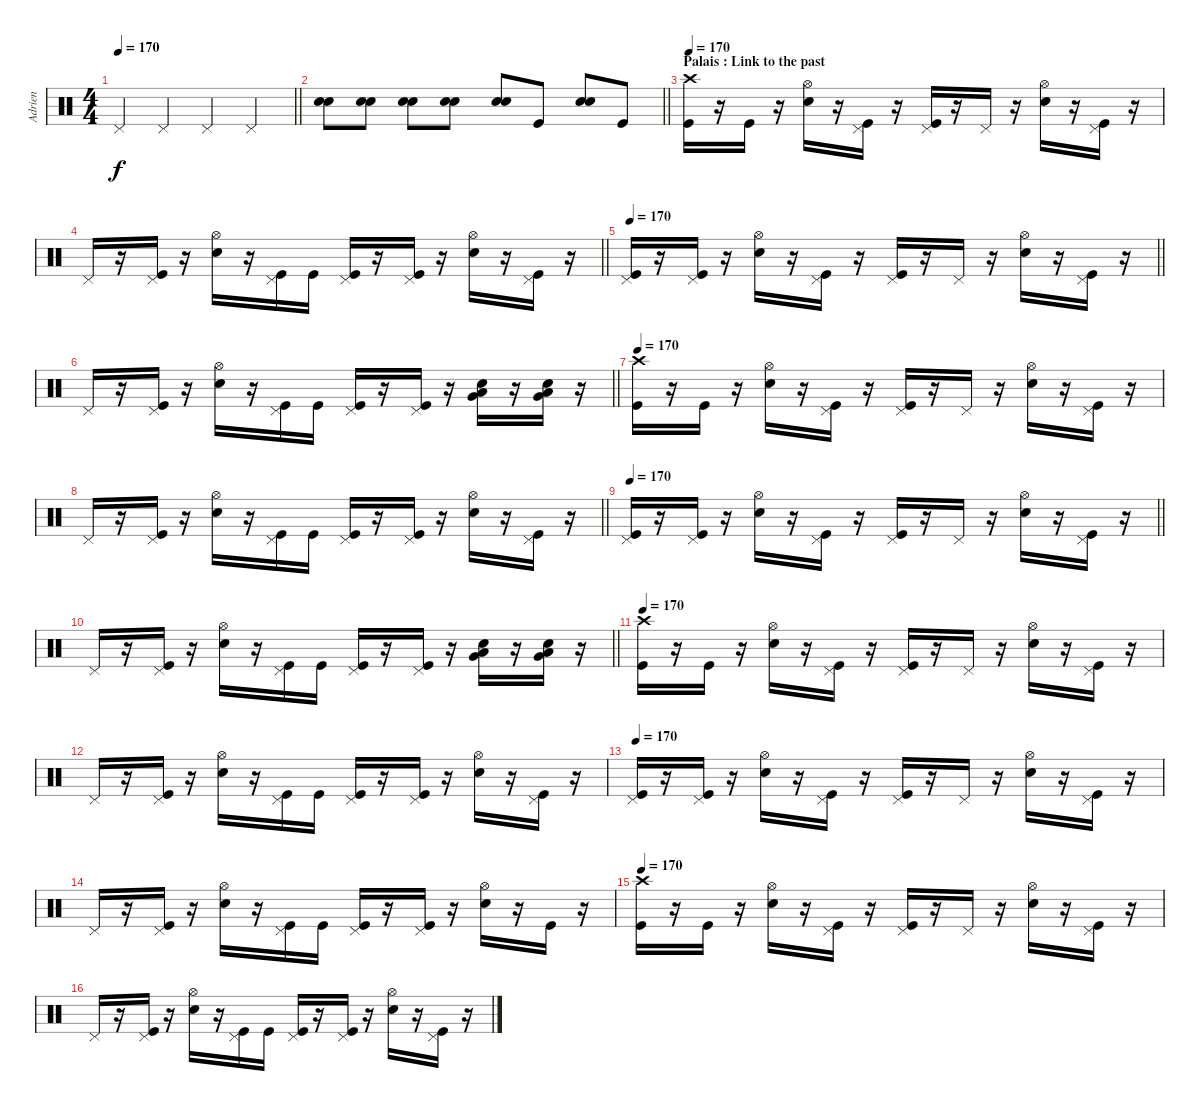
\track ("Adrien" "Adrien") {instrument percussion}
\staff {score}
\articulation defaults
\ts (4 4)
\tempo 170
\clef neutral
\barLineRight lightlight
\ks c "Pedal Hi-Hat (hit)".4{dy f} "Pedal Hi-Hat (hit)".4 "Pedal Hi-Hat (hit)".4 "Pedal Hi-Hat (hit)".4
|
\barLineRight lightlight
("Snare (hit) 2" "Snare (hit) 2").8 ("Snare (hit) 2" "Snare (hit) 2").8 ("Snare (hit) 2" "Snare (hit) 2").8 ("Snare (hit) 2" "Snare (hit) 2").8 ("Snare (hit) 2" "Snare (hit) 2").8 "Kick (hit)".8 ("Snare (hit) 2" "Snare (hit) 2").8 "Kick (hit)".8 |
\section ("" "Palais : Link to the past")
\tempo 170
("Crash high (hit)" "Kick (hit)").16 r.16 "Kick (hit)".16 r.16 ("Hi-Hat (open)" "Electric Snare (hit)").16 r.16 ("Pedal Hi-Hat (hit)" "Kick (hit)").16 r.16 ("Pedal Hi-Hat (hit)" "Kick (hit)").16 r.16 "Pedal Hi-Hat (hit)".16 r.16 ("Hi-Hat (open)" "Electric Snare (hit)").16 r.16 ("Pedal Hi-Hat (hit)" "Kick (hit)").16 r.16 |
\barLineRight lightlight "Pedal Hi-Hat (hit)".16
r.16 ("Pedal Hi-Hat (hit)" "Kick (hit)").16 r.16 ("Hi-Hat (open)" "Electric Snare (hit)").16 r.16 ("Pedal Hi-Hat (hit)" "Kick (hit)").16 "Kick (hit)".16 ("Pedal Hi-Hat (hit)" "Kick (hit)").16 r.16 ("Pedal Hi-Hat (hit)" "Kick (hit)").16 r.16 ("Hi-Hat (open)" "Electric Snare (hit)").16 r.16 ("Pedal Hi-Hat (hit)" "Kick (hit)").16 r.16 |
\tempo 170
\barLineRight lightlight
("Pedal Hi-Hat (hit)" "Kick (hit)").16 r.16 ("Pedal Hi-Hat (hit)" "Kick (hit)").16 r.16 ("Hi-Hat (open)" "Electric Snare (hit)").16 r.16 ("Pedal Hi-Hat (hit)" "Kick (hit)").16 r.16 ("Pedal Hi-Hat (hit)" "Kick (hit)").16 r.16 "Pedal Hi-Hat (hit)".16 r.16 ("Hi-Hat (open)" "Electric Snare (hit)").16 r.16 ("Pedal Hi-Hat (hit)" "Kick (hit)").16 r.16 |
\barLineRight lightlight "Pedal Hi-Hat (hit)".16
r.16 ("Pedal Hi-Hat (hit)" "Kick (hit)").16 r.16 ("Hi-Hat (open)" "Electric Snare (hit)").16 r.16 ("Pedal Hi-Hat (hit)" "Kick (hit)").16 "Kick (hit)".16 ("Pedal Hi-Hat (hit)" "Kick (hit)").16 r.16 ("Pedal Hi-Hat (hit)" "Kick (hit)").16 r.16 ("Very Low Tom (hit)" "Low Floor Tom (hit)" "Electric Snare (hit)").16 r.16 ("Very Low Tom (hit)" "Low Floor Tom (hit)" "Electric Snare (hit)").16 r.16 |
\tempo 170
("Crash high (hit)" "Kick (hit)").16 r.16 "Kick (hit)".16 r.16 ("Hi-Hat (open)" "Electric Snare (hit)").16 r.16 ("Pedal Hi-Hat (hit)" "Kick (hit)").16 r.16 ("Pedal Hi-Hat (hit)" "Kick (hit)").16 r.16 "Pedal Hi-Hat (hit)".16 r.16 ("Hi-Hat (open)" "Electric Snare (hit)").16 r.16 ("Pedal Hi-Hat (hit)" "Kick (hit)").16 r.16 |
\barLineRight lightlight "Pedal Hi-Hat (hit)".16
r.16 ("Pedal Hi-Hat (hit)" "Kick (hit)").16 r.16 ("Hi-Hat (open)" "Electric Snare (hit)").16 r.16 ("Pedal Hi-Hat (hit)" "Kick (hit)").16 "Kick (hit)".16 ("Pedal Hi-Hat (hit)" "Kick (hit)").16 r.16 ("Pedal Hi-Hat (hit)" "Kick (hit)").16 r.16 ("Hi-Hat (open)" "Electric Snare (hit)").16 r.16 ("Pedal Hi-Hat (hit)" "Kick (hit)").16 r.16 |
\tempo 170
\barLineRight lightlight
("Pedal Hi-Hat (hit)" "Kick (hit)").16 r.16 ("Pedal Hi-Hat (hit)" "Kick (hit)").16 r.16 ("Hi-Hat (open)" "Electric Snare (hit)").16 r.16 ("Pedal Hi-Hat (hit)" "Kick (hit)").16 r.16 ("Pedal Hi-Hat (hit)" "Kick (hit)").16 r.16 "Pedal Hi-Hat (hit)".16 r.16 ("Hi-Hat (open)" "Electric Snare (hit)").16 r.16 ("Pedal Hi-Hat (hit)" "Kick (hit)").16 r.16 |
\barLineRight lightlight "Pedal Hi-Hat (hit)".16
r.16 ("Pedal Hi-Hat (hit)" "Kick (hit)").16 r.16 ("Hi-Hat (open)" "Electric Snare (hit)").16 r.16 ("Pedal Hi-Hat (hit)" "Kick (hit)").16 "Kick (hit)".16 ("Pedal Hi-Hat (hit)" "Kick (hit)").16 r.16 ("Pedal Hi-Hat (hit)" "Kick (hit)").16 r.16 ("Very Low Tom (hit)" "Low Floor Tom (hit)" "Electric Snare (hit)").16 r.16 ("Very Low Tom (hit)" "Low Floor Tom (hit)" "Electric Snare (hit)").16 r.16 |
\tempo 170
("Crash high (hit)" "Kick (hit)").16 r.16 "Kick (hit)".16 r.16 ("Hi-Hat (open)" "Electric Snare (hit)").16 r.16 ("Pedal Hi-Hat (hit)" "Kick (hit)").16 r.16 ("Pedal Hi-Hat (hit)" "Kick (hit)").16 r.16 "Pedal Hi-Hat (hit)".16 r.16 ("Hi-Hat (open)" "Electric Snare (hit)").16 r.16 ("Pedal Hi-Hat (hit)" "Kick (hit)").16 r.16 |
"Pedal Hi-Hat (hit)".16 r.16 ("Pedal Hi-Hat (hit)" "Kick (hit)").16 r.16 ("Hi-Hat (open)" "Electric Snare (hit)").16 r.16 ("Pedal Hi-Hat (hit)" "Kick (hit)").16 "Kick (hit)".16 ("Pedal Hi-Hat (hit)" "Kick (hit)").16 r.16 ("Pedal Hi-Hat (hit)" "Kick (hit)").16 r.16 ("Hi-Hat (open)" "Electric Snare (hit)").16 r.16 ("Pedal Hi-Hat (hit)" "Kick (hit)").16 r.16 |
\tempo 170
("Pedal Hi-Hat (hit)" "Kick (hit)").16 r.16 ("Pedal Hi-Hat (hit)" "Kick (hit)").16 r.16 ("Hi-Hat (open)" "Electric Snare (hit)").16 r.16 ("Pedal Hi-Hat (hit)" "Kick (hit)").16 r.16 ("Pedal Hi-Hat (hit)" "Kick (hit)").16 r.16 "Pedal Hi-Hat (hit)".16 r.16 ("Hi-Hat (open)" "Electric Snare (hit)").16 r.16 ("Pedal Hi-Hat (hit)" "Kick (hit)").16 r.16 |
"Pedal Hi-Hat (hit)".16 r.16 ("Pedal Hi-Hat (hit)" "Kick (hit)").16 r.16 ("Hi-Hat (open)" "Electric Snare (hit)").16 r.16 ("Pedal Hi-Hat (hit)" "Kick (hit)").16 "Kick (hit)".16 ("Pedal Hi-Hat (hit)" "Kick (hit)").16 r.16 ("Pedal Hi-Hat (hit)" "Kick (hit)").16 r.16 ("Hi-Hat (open)" "Electric Snare (hit)").16 r.16 "Kick (hit)".16 r.16 |
\tempo 170
("Crash high (hit)" "Kick (hit)").16 r.16 "Kick (hit)".16 r.16 ("Hi-Hat (open)" "Electric Snare (hit)").16 r.16 ("Pedal Hi-Hat (hit)" "Kick (hit)").16 r.16 ("Pedal Hi-Hat (hit)" "Kick (hit)").16 r.16 "Pedal Hi-Hat (hit)".16 r.16 ("Hi-Hat (open)" "Electric Snare (hit)").16 r.16 ("Pedal Hi-Hat (hit)" "Kick (hit)").16 r.16 |
"Pedal Hi-Hat (hit)".16 r.16 ("Pedal Hi-Hat (hit)" "Kick (hit)").16 r.16 ("Hi-Hat (open)" "Electric Snare (hit)").16 r.16 ("Pedal Hi-Hat (hit)" "Kick (hit)").16 "Kick (hit)".16 ("Pedal Hi-Hat (hit)" "Kick (hit)").16 r.16 ("Pedal Hi-Hat (hit)" "Kick (hit)").16 r.16 ("Hi-Hat (open)" "Electric Snare (hit)").16 r.16 ("Pedal Hi-Hat (hit)" "Kick (hit)").16 r.16
